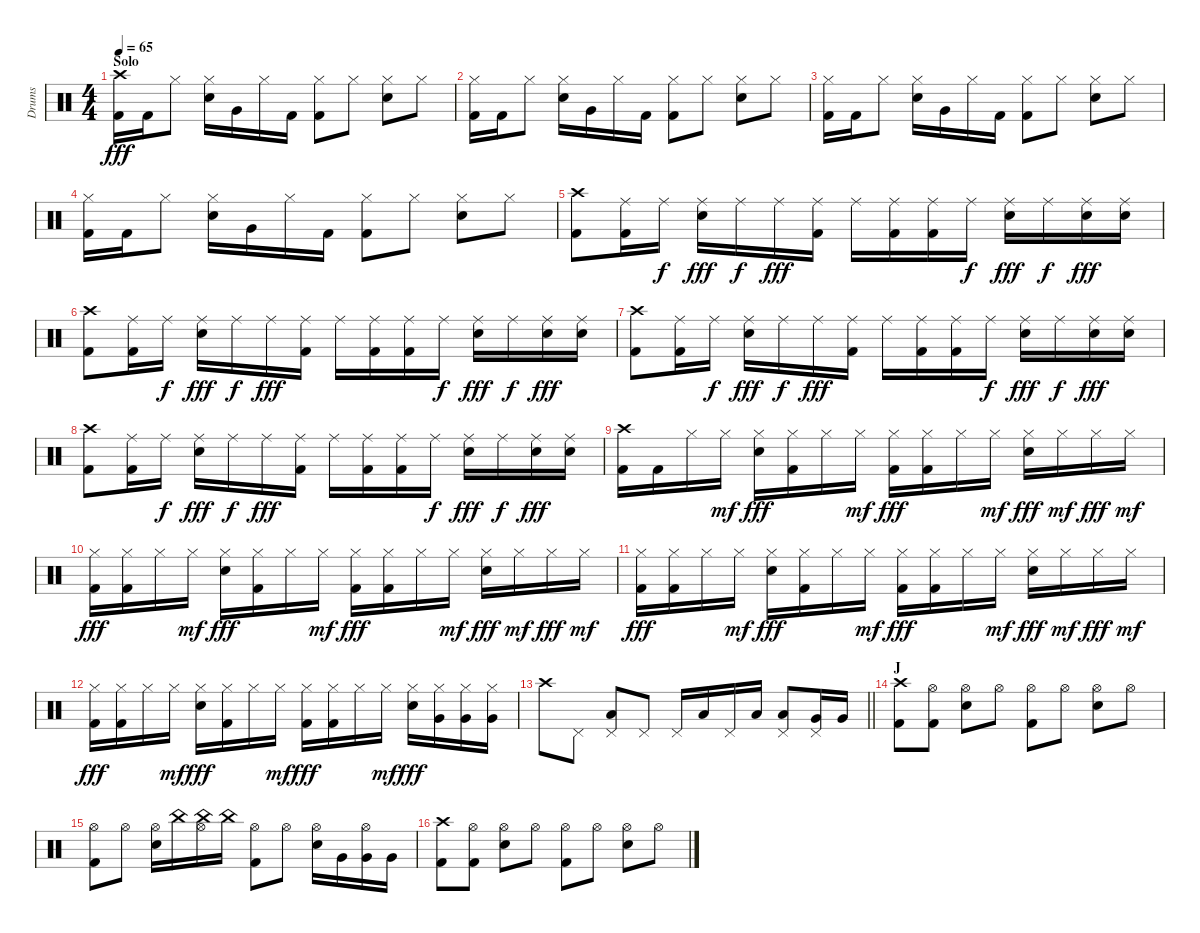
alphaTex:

\track ("Drums" "Drums") {instrument percussion}
\staff {score}
\articulation defaults
\ts (4 4)
\section ("" "Solo")
\tempo 65
\clef neutral
\ks c
("Crash high (hit)" "Kick (hit) 2").16{dy fff} "Kick (hit) 2".16 "Hi-Hat (closed)".8 ("Hi-Hat (closed)" "Snare (hit) 2").16 "Very Low Tom (hit)".16 "Hi-Hat (closed)".16 "Kick (hit) 2".16 ("Hi-Hat (closed)" "Kick (hit) 2").8 "Hi-Hat (closed)".8 ("Hi-Hat (closed)" "Snare (hit) 2").8 "Hi-Hat (closed)".8 |
("Hi-Hat (closed)" "Kick (hit) 2").16 "Kick (hit) 2".16 "Hi-Hat (closed)".8 ("Hi-Hat (closed)" "Snare (hit) 2").16 "Very Low Tom (hit)".16 "Hi-Hat (closed)".16 "Kick (hit) 2".16 ("Hi-Hat (closed)" "Kick (hit) 2").8 "Hi-Hat (closed)".8 ("Hi-Hat (closed)" "Snare (hit) 2").8 "Hi-Hat (closed)".8 |
("Hi-Hat (closed)" "Kick (hit) 2").16 "Kick (hit) 2".16 "Hi-Hat (closed)".8 ("Hi-Hat (closed)" "Snare (hit) 2").16 "Very Low Tom (hit)".16 "Hi-Hat (closed)".16 "Kick (hit) 2".16 ("Hi-Hat (closed)" "Kick (hit) 2").8 "Hi-Hat (closed)".8 ("Hi-Hat (closed)" "Snare (hit) 2").8 "Hi-Hat (closed)".8 |
("Hi-Hat (closed)" "Kick (hit) 2").16 "Kick (hit) 2".16 "Hi-Hat (closed)".8 ("Hi-Hat (closed)" "Snare (hit) 2").16 "Very Low Tom (hit)".16 "Hi-Hat (closed)".16 "Kick (hit) 2".16 ("Hi-Hat (closed)" "Kick (hit) 2").8 "Hi-Hat (closed)".8 ("Hi-Hat (closed)" "Snare (hit) 2").8 "Hi-Hat (closed)".8 |
("Crash high (hit)" "Kick (hit) 2").8 ("Ride (middle)" "Kick (hit) 2").16 "Ride (middle)".16{dy f} ("Ride (middle)" "Snare (hit) 2").16{dy fff} "Ride (middle)".16{dy f} "Ride (middle)".16{dy fff} ("Ride (middle)" "Kick (hit) 2").16 "Ride (middle)".16 ("Ride (middle)" "Kick (hit) 2").16 ("Ride (middle)" "Kick (hit) 2").16 "Ride (middle)".16{dy f} ("Ride (middle)" "Snare (hit) 2").16{dy fff} "Ride (middle)".16{dy f} ("Ride (middle)" "Snare (hit) 2").16{dy fff} ("Ride (middle)" "Snare (hit) 2").16 |
("Crash high (hit)" "Kick (hit) 2").8 ("Ride (middle)" "Kick (hit) 2").16 "Ride (middle)".16{dy f} ("Ride (middle)" "Snare (hit) 2").16{dy fff} "Ride (middle)".16{dy f} "Ride (middle)".16{dy fff} ("Ride (middle)" "Kick (hit) 2").16 "Ride (middle)".16 ("Ride (middle)" "Kick (hit) 2").16 ("Ride (middle)" "Kick (hit) 2").16 "Ride (middle)".16{dy f} ("Ride (middle)" "Snare (hit) 2").16{dy fff} "Ride (middle)".16{dy f} ("Ride (middle)" "Snare (hit) 2").16{dy fff} ("Ride (middle)" "Snare (hit) 2").16 |
("Crash high (hit)" "Kick (hit) 2").8 ("Ride (middle)" "Kick (hit) 2").16 "Ride (middle)".16{dy f} ("Ride (middle)" "Snare (hit) 2").16{dy fff} "Ride (middle)".16{dy f} "Ride (middle)".16{dy fff} ("Ride (middle)" "Kick (hit) 2").16 "Ride (middle)".16 ("Ride (middle)" "Kick (hit) 2").16 ("Ride (middle)" "Kick (hit) 2").16 "Ride (middle)".16{dy f} ("Ride (middle)" "Snare (hit) 2").16{dy fff} "Ride (middle)".16{dy f} ("Ride (middle)" "Snare (hit) 2").16{dy fff} ("Ride (middle)" "Snare (hit) 2").16 |
("Crash high (hit)" "Kick (hit) 2").8 ("Ride (middle)" "Kick (hit) 2").16 "Ride (middle)".16{dy f} ("Ride (middle)" "Snare (hit) 2").16{dy fff} "Ride (middle)".16{dy f} "Ride (middle)".16{dy fff} ("Ride (middle)" "Kick (hit) 2").16 "Ride (middle)".16 ("Ride (middle)" "Kick (hit) 2").16 ("Ride (middle)" "Kick (hit) 2").16 "Ride (middle)".16{dy f} ("Ride (middle)" "Snare (hit) 2").16{dy fff} "Ride (middle)".16{dy f} ("Ride (middle)" "Snare (hit) 2").16{dy fff} ("Ride (middle)" "Snare (hit) 2").16 |
("Crash high (hit)" "Kick (hit) 2").16 "Kick (hit) 2".16 "Hi-Hat (closed)".16 "Hi-Hat (closed)".16{dy mf} ("Hi-Hat (closed)" "Snare (hit) 2").16{dy fff} ("Hi-Hat (closed)" "Kick (hit) 2").16 "Hi-Hat (closed)".16 "Hi-Hat (closed)".16{dy mf} ("Hi-Hat (closed)" "Kick (hit) 2").16{dy fff} ("Hi-Hat (closed)" "Kick (hit) 2").16 "Hi-Hat (closed)".16 "Hi-Hat (closed)".16{dy mf} ("Hi-Hat (closed)" "Snare (hit) 2").16{dy fff} "Hi-Hat (closed)".16{dy mf} "Hi-Hat (closed)".16{dy fff} "Hi-Hat (closed)".16{dy mf} |
("Hi-Hat (closed)" "Kick (hit) 2").16{dy fff} ("Hi-Hat (closed)" "Kick (hit) 2").16 "Hi-Hat (closed)".16 "Hi-Hat (closed)".16{dy mf} ("Hi-Hat (closed)" "Snare (hit) 2").16{dy fff} ("Hi-Hat (closed)" "Kick (hit) 2").16 "Hi-Hat (closed)".16 "Hi-Hat (closed)".16{dy mf} ("Hi-Hat (closed)" "Kick (hit) 2").16{dy fff} ("Hi-Hat (closed)" "Kick (hit) 2").16 "Hi-Hat (closed)".16 "Hi-Hat (closed)".16{dy mf} ("Hi-Hat (closed)" "Snare (hit) 2").16{dy fff} "Hi-Hat (closed)".16{dy mf} "Hi-Hat (closed)".16{dy fff} "Hi-Hat (closed)".16{dy mf} |
("Hi-Hat (closed)" "Kick (hit) 2").16{dy fff} ("Hi-Hat (closed)" "Kick (hit) 2").16 "Hi-Hat (closed)".16 "Hi-Hat (closed)".16{dy mf} ("Hi-Hat (closed)" "Snare (hit) 2").16{dy fff} ("Hi-Hat (closed)" "Kick (hit) 2").16 "Hi-Hat (closed)".16 "Hi-Hat (closed)".16{dy mf} ("Hi-Hat (closed)" "Kick (hit) 2").16{dy fff} ("Hi-Hat (closed)" "Kick (hit) 2").16 "Hi-Hat (closed)".16 "Hi-Hat (closed)".16{dy mf} ("Hi-Hat (closed)" "Snare (hit) 2").16{dy fff} "Hi-Hat (closed)".16{dy mf} "Hi-Hat (closed)".16{dy fff} "Hi-Hat (closed)".16{dy mf} |
("Hi-Hat (closed)" "Kick (hit) 2").16{dy fff} ("Hi-Hat (closed)" "Kick (hit) 2").16 "Hi-Hat (closed)".16 "Hi-Hat (closed)".16{dy mf} ("Hi-Hat (closed)" "Snare (hit) 2").16{dy fff} ("Hi-Hat (closed)" "Kick (hit) 2").16 "Hi-Hat (closed)".16 "Hi-Hat (closed)".16{dy mf} ("Hi-Hat (closed)" "Kick (hit) 2").16{dy fff} ("Hi-Hat (closed)" "Kick (hit) 2").16 "Hi-Hat (closed)".16 "Hi-Hat (closed)".16{dy mf} ("Hi-Hat (closed)" "Snare (hit) 2").16{dy fff} ("Hi-Hat (closed)" "Very Low Tom (hit)").16 ("Hi-Hat (closed)" "Very Low Tom (hit)").16 ("Hi-Hat (closed)" "Very Low Tom (hit)").16 |
\barLineRight lightlight "Crash high (hit)".8 "Pedal Hi-Hat (hit)".8
("Pedal Hi-Hat (hit)" "Low Tom (hit)").8 "Pedal Hi-Hat (hit)".8 "Pedal Hi-Hat (hit)".16 "Low Tom (hit)".16 "Pedal Hi-Hat (hit)".16 "Low Tom (hit)".16 ("Pedal Hi-Hat (hit)" "Low Tom (hit)").8 ("Pedal Hi-Hat (hit)" "Very Low Tom (hit)").16 "Very Low Tom (hit)".16 |
\section ("" "J")
("Crash high (hit)" "Kick (hit) 2").8 ("Hi-Hat (open)" "Kick (hit) 2").8 ("Hi-Hat (open)" "Snare (hit) 2").8 "Hi-Hat (open)".8 ("Hi-Hat (open)" "Kick (hit) 2").8 "Hi-Hat (open)".8 ("Hi-Hat (open)" "Snare (hit) 2").8 "Hi-Hat (open)".8 |
("Hi-Hat (open)" "Kick (hit) 2").8 "Hi-Hat (open)".8 ("Hi-Hat (open)" "Snare (hit) 2").16 "China (hit)".16 ("Hi-Hat (open)" "China (hit)").16 "China (hit)".16 ("Hi-Hat (open)" "Kick (hit) 2").8 "Hi-Hat (open)".8 ("Hi-Hat (open)" "Snare (hit) 2").16 "Very Low Tom (hit)".16 ("Hi-Hat (open)" "Very Low Tom (hit)").16 "Very Low Tom (hit)".16 |
("Crash high (hit)" "Kick (hit) 2").8 ("Hi-Hat (open)" "Kick (hit) 2").8 ("Hi-Hat (open)" "Snare (hit) 2").8 "Hi-Hat (open)".8 ("Hi-Hat (open)" "Kick (hit) 2").8 "Hi-Hat (open)".8 ("Hi-Hat (open)" "Snare (hit) 2").8 "Hi-Hat (open)".8
